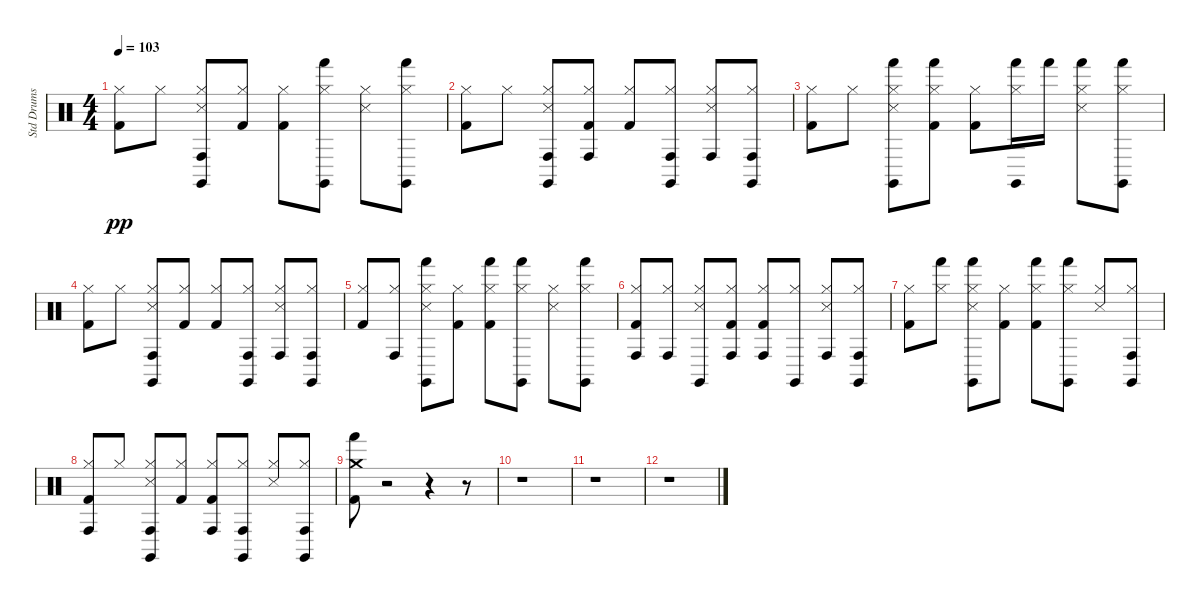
\track ("Std Drums " "Std Drums ") {instrument percussion}
\staff {score}
\articulation defaults
\ts (4 4)
\tempo 103
\clef neutral
\ks c
("Hi-Hat (closed)" "Kick (hit) 2").8{dy pp} "Hi-Hat (closed)".8 ("Snare (side stick) 3" "Conga high (hit)" "Hi-Hat (closed)" "Claves (hit)").8 ("Kick (hit) 2" "Hi-Hat (closed)").8 ("Hi-Hat (closed)" "Kick (hit) 2").8 ("Claves (hit)" "Hi-Hat (closed)" "Hand (hit)").8 ("Hi-Hat (closed)" "Snare (side stick) 3").8 ("Hand (hit)" "Hi-Hat (closed)" "Claves (hit)").8 |
("Hi-Hat (closed)" "Kick (hit) 2").8 "Hi-Hat (closed)".8 ("Conga high (hit)" "Claves (hit)" "Hi-Hat (closed)" "Snare (side stick) 3").8 ("Kick (hit) 2" "Conga high (hit)" "Hi-Hat (closed)").8 ("Kick (hit) 2" "Hi-Hat (closed)").8 ("Hi-Hat (closed)" "Conga high (hit)" "Claves (hit)").8 ("Snare (side stick) 3" "Conga high (hit)" "Hi-Hat (closed)").8 ("Claves (hit)" "Conga high (hit)" "Hi-Hat (closed)").8 |
("Kick (hit) 2" "Hi-Hat (closed)").8 "Hi-Hat (closed)".8 ("Hand (hit)" "Claves (hit)" "Snare (side stick) 3" "Hi-Hat (closed)").8 ("Hi-Hat (closed)" "Kick (hit) 2" "Hand (hit)").8 ("Kick (hit) 2" "Hi-Hat (closed)").8 ("Claves (hit)" "Hi-Hat (closed)" "Hand (hit)").16 "Hand (hit)".16 ("Hand (hit)" "Hi-Hat (closed)" "Snare (side stick) 3").8 ("Hand (hit)" "Hi-Hat (closed)" "Claves (hit)").8 |
("Kick (hit) 2" "Hi-Hat (closed)").8 "Hi-Hat (closed)".8 ("Conga high (hit)" "Snare (side stick) 3" "Hi-Hat (closed)" "Claves (hit)").8 ("Kick (hit) 2" "Hi-Hat (closed)").8 ("Kick (hit) 2" "Hi-Hat (closed)").8 ("Claves (hit)" "Hi-Hat (closed)" "Conga high (hit)").8 ("Conga high (hit)" "Hi-Hat (closed)" "Snare (side stick) 3").8 ("Claves (hit)" "Conga high (hit)" "Hi-Hat (closed)").8 |
("Kick (hit) 2" "Hi-Hat (closed)").8 ("Hi-Hat (closed)" "Conga high (hit)").8 ("Hand (hit)" "Hi-Hat (closed)" "Claves (hit)" "Snare (side stick) 3").8 ("Hi-Hat (closed)" "Kick (hit) 2").8 ("Hi-Hat (closed)" "Kick (hit) 2" "Hand (hit)").8 ("Hi-Hat (closed)" "Hand (hit)" "Claves (hit)").8 ("Hi-Hat (closed)" "Snare (side stick) 3").8 ("Claves (hit)" "Hi-Hat (closed)" "Hand (hit)").8 |
("Conga high (hit)" "Kick (hit) 2" "Hi-Hat (closed)").8 ("Conga high (hit)" "Hi-Hat (closed)").8 ("Claves (hit)" "Snare (side stick) 3" "Hi-Hat (closed)").8 ("Hi-Hat (closed)" "Kick (hit) 2" "Conga high (hit)").8 ("Kick (hit) 2" "Conga high (hit)" "Hi-Hat (closed)").8 ("Claves (hit)" "Hi-Hat (closed)").8 ("Snare (side stick) 3" "Hi-Hat (closed)" "Conga high (hit)").8 ("Conga high (hit)" "Hi-Hat (closed)" "Claves (hit)").8 |
("Hi-Hat (closed)" "Kick (hit) 2").8 ("Hi-Hat (closed)" "Hand (hit)").8 ("Hand (hit)" "Claves (hit)" "Snare (side stick) 3" "Hi-Hat (closed)").8 ("Hi-Hat (closed)" "Kick (hit) 2").8 ("Hi-Hat (closed)" "Hand (hit)" "Kick (hit) 2").8 ("Claves (hit)" "Hi-Hat (closed)" "Hand (hit)").8 ("Hi-Hat (closed)" "Snare (side stick) 3").8 ("Conga high (hit)" "Claves (hit)" "Hi-Hat (closed)").8 |
("Hi-Hat (closed)" "Conga high (hit)" "Kick (hit) 2").8 "Hi-Hat (closed)".8 ("Conga high (hit)" "Snare (side stick) 3" "Hi-Hat (closed)" "Claves (hit)").8 ("Kick (hit) 2" "Hi-Hat (closed)").8 ("Kick (hit) 2" "Conga high (hit)" "Hi-Hat (closed)").8 ("Claves (hit)" "Hi-Hat (closed)" "Conga high (hit)").8 ("Snare (side stick) 3" "Hi-Hat (closed)").8 ("Hi-Hat (closed)" "Conga high (hit)" "Claves (hit)").8 |
("Crash medium (hit)" "Kick (hit) 2" "Hand (hit)").8 r.2 r.4 r.8 |
r.1 |
r.1 |
r.1
